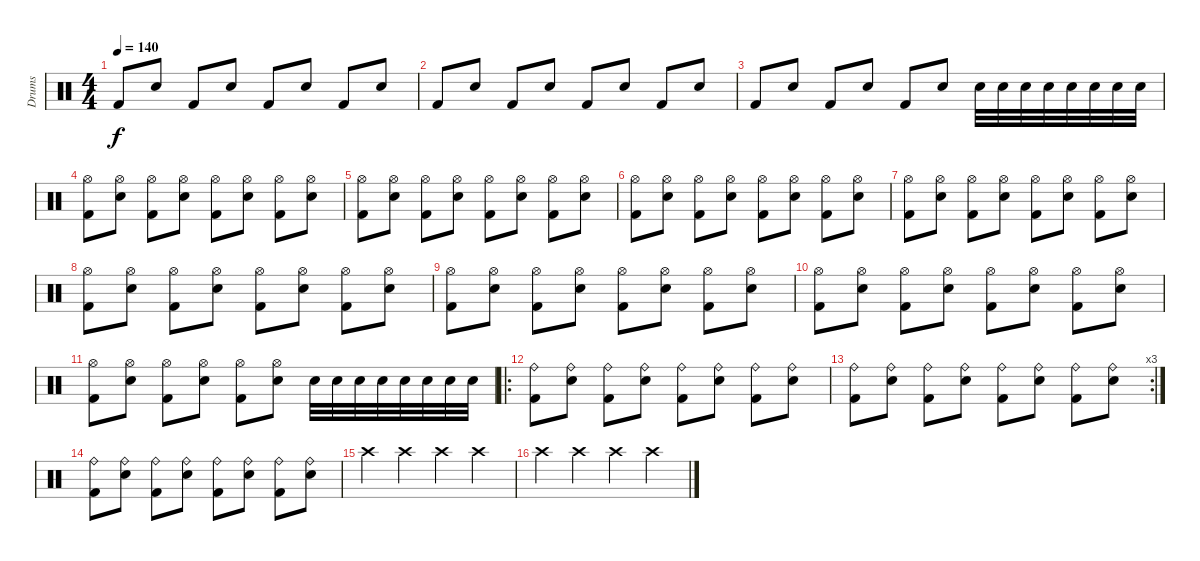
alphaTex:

\track ("Drums" "Drums") {instrument percussion}
\staff {score}
\articulation defaults
\ts (4 4)
\tempo 140
\clef neutral
\ks c "Kick (hit) 2".8{dy f} "Electric Snare (hit)".8 "Kick (hit) 2".8 "Electric Snare (hit)".8 "Kick (hit) 2".8 "Electric Snare (hit)".8 "Kick (hit) 2".8 "Electric Snare (hit)".8
|
"Kick (hit) 2".8 "Electric Snare (hit)".8 "Kick (hit) 2".8 "Electric Snare (hit)".8 "Kick (hit) 2".8 "Electric Snare (hit)".8 "Kick (hit) 2".8 "Electric Snare (hit)".8 |
"Kick (hit) 2".8 "Electric Snare (hit)".8 "Kick (hit) 2".8 "Electric Snare (hit)".8 "Kick (hit) 2".8 "Electric Snare (hit)".8 "Electric Snare (hit)".32 "Electric Snare (hit)".32 "Electric Snare (hit)".32 "Electric Snare (hit)".32 "Electric Snare (hit)".32 "Electric Snare (hit)".32 "Electric Snare (hit)".32 "Electric Snare (hit)".32 |
("Hi-Hat (open)" "Kick (hit) 2").8 ("Hi-Hat (open)" "Electric Snare (hit)").8 ("Hi-Hat (open)" "Kick (hit) 2").8 ("Hi-Hat (open)" "Electric Snare (hit)").8 ("Hi-Hat (open)" "Kick (hit) 2").8 ("Hi-Hat (open)" "Electric Snare (hit)").8 ("Hi-Hat (open)" "Kick (hit) 2").8 ("Hi-Hat (open)" "Electric Snare (hit)").8 |
("Hi-Hat (open)" "Kick (hit) 2").8 ("Hi-Hat (open)" "Electric Snare (hit)").8 ("Hi-Hat (open)" "Kick (hit) 2").8 ("Hi-Hat (open)" "Electric Snare (hit)").8 ("Hi-Hat (open)" "Kick (hit) 2").8 ("Hi-Hat (open)" "Electric Snare (hit)").8 ("Hi-Hat (open)" "Kick (hit) 2").8 ("Hi-Hat (open)" "Electric Snare (hit)").8 |
("Hi-Hat (open)" "Kick (hit) 2").8 ("Hi-Hat (open)" "Electric Snare (hit)").8 ("Hi-Hat (open)" "Kick (hit) 2").8 ("Hi-Hat (open)" "Electric Snare (hit)").8 ("Hi-Hat (open)" "Kick (hit) 2").8 ("Hi-Hat (open)" "Electric Snare (hit)").8 ("Hi-Hat (open)" "Kick (hit) 2").8 ("Hi-Hat (open)" "Electric Snare (hit)").8 |
("Hi-Hat (open)" "Kick (hit) 2").8 ("Hi-Hat (open)" "Electric Snare (hit)").8 ("Hi-Hat (open)" "Kick (hit) 2").8 ("Hi-Hat (open)" "Electric Snare (hit)").8 ("Hi-Hat (open)" "Kick (hit) 2").8 ("Hi-Hat (open)" "Electric Snare (hit)").8 ("Hi-Hat (open)" "Kick (hit) 2").8 ("Hi-Hat (open)" "Electric Snare (hit)").8 |
("Hi-Hat (open)" "Kick (hit) 2").8 ("Hi-Hat (open)" "Electric Snare (hit)").8 ("Hi-Hat (open)" "Kick (hit) 2").8 ("Hi-Hat (open)" "Electric Snare (hit)").8 ("Hi-Hat (open)" "Kick (hit) 2").8 ("Hi-Hat (open)" "Electric Snare (hit)").8 ("Hi-Hat (open)" "Kick (hit) 2").8 ("Hi-Hat (open)" "Electric Snare (hit)").8 |
("Hi-Hat (open)" "Kick (hit) 2").8 ("Hi-Hat (open)" "Electric Snare (hit)").8 ("Hi-Hat (open)" "Kick (hit) 2").8 ("Hi-Hat (open)" "Electric Snare (hit)").8 ("Hi-Hat (open)" "Kick (hit) 2").8 ("Hi-Hat (open)" "Electric Snare (hit)").8 ("Hi-Hat (open)" "Kick (hit) 2").8 ("Hi-Hat (open)" "Electric Snare (hit)").8 |
("Hi-Hat (open)" "Kick (hit) 2").8 ("Hi-Hat (open)" "Electric Snare (hit)").8 ("Hi-Hat (open)" "Kick (hit) 2").8 ("Hi-Hat (open)" "Electric Snare (hit)").8 ("Hi-Hat (open)" "Kick (hit) 2").8 ("Hi-Hat (open)" "Electric Snare (hit)").8 ("Hi-Hat (open)" "Kick (hit) 2").8 ("Hi-Hat (open)" "Electric Snare (hit)").8 |
("Hi-Hat (open)" "Kick (hit) 2").8 ("Hi-Hat (open)" "Electric Snare (hit)").8 ("Hi-Hat (open)" "Kick (hit) 2").8 ("Hi-Hat (open)" "Electric Snare (hit)").8 ("Hi-Hat (open)" "Kick (hit) 2").8 ("Hi-Hat (open)" "Electric Snare (hit)").8 "Electric Snare (hit)".32 "Electric Snare (hit)".32 "Electric Snare (hit)".32 "Electric Snare (hit)".32 "Electric Snare (hit)".32 "Electric Snare (hit)".32 "Electric Snare (hit)".32 "Electric Snare (hit)".32 |
\ro
("Ride (bell)" "Kick (hit) 2").8 ("Ride (bell)" "Electric Snare (hit)").8 ("Ride (bell)" "Kick (hit) 2").8 ("Ride (bell)" "Electric Snare (hit)").8 ("Ride (bell)" "Kick (hit) 2").8 ("Ride (bell)" "Electric Snare (hit)").8 ("Ride (bell)" "Kick (hit) 2").8 ("Ride (bell)" "Electric Snare (hit)").8 |
\rc 3
("Ride (bell)" "Kick (hit) 2").8 ("Ride (bell)" "Electric Snare (hit)").8 ("Ride (bell)" "Kick (hit) 2").8 ("Ride (bell)" "Electric Snare (hit)").8 ("Ride (bell)" "Kick (hit) 2").8 ("Ride (bell)" "Electric Snare (hit)").8 ("Ride (bell)" "Kick (hit) 2").8 ("Ride (bell)" "Electric Snare (hit)").8 |
("Ride (bell)" "Kick (hit) 2").8 ("Ride (bell)" "Electric Snare (hit)").8 ("Ride (bell)" "Kick (hit) 2").8 ("Ride (bell)" "Electric Snare (hit)").8 ("Ride (bell)" "Kick (hit) 2").8 ("Ride (bell)" "Electric Snare (hit)").8 ("Ride (bell)" "Kick (hit) 2").8 ("Ride (bell)" "Electric Snare (hit)").8 |
"Crash high (hit)".4 "Crash high (hit)".4 "Crash high (hit)".4 "Crash high (hit)".4 |
"Crash high (hit)".4 "Crash high (hit)".4 "Crash high (hit)".4 "Crash high (hit)".4
